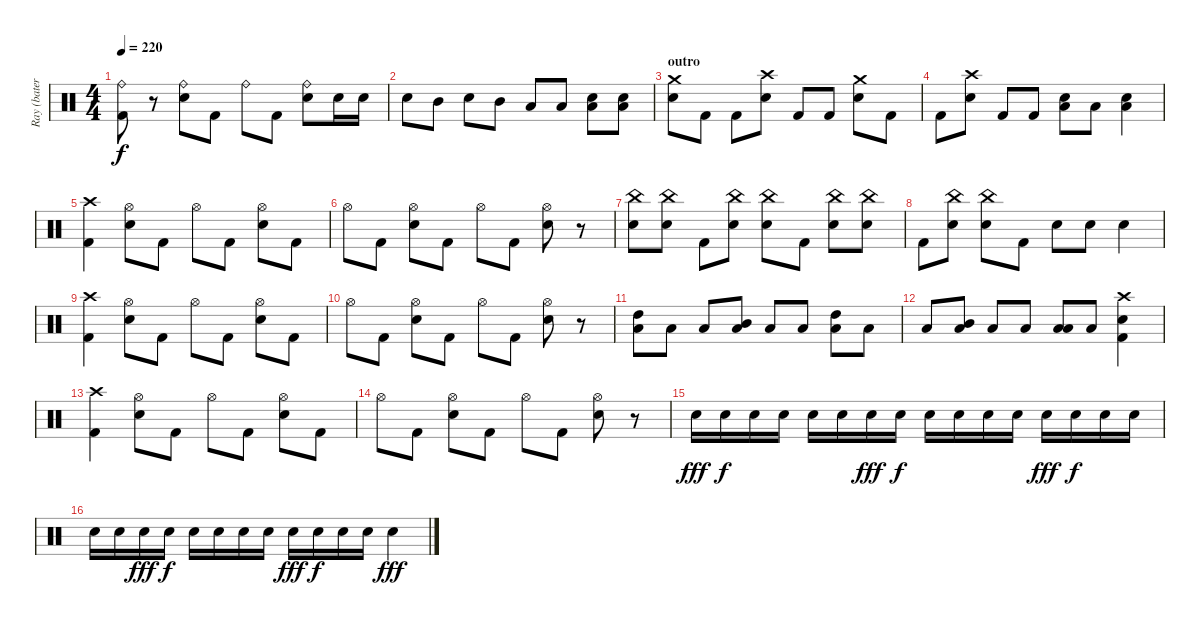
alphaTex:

\track ("Ray (batería)" "Ray (bater") {instrument percussion}
\staff {score}
\articulation defaults
\ts (4 4)
\tempo 220
\clef neutral
\ks c
("Ride (bell)" "Kick (hit) 2").8{dy f} r.8 ("Ride (bell)" "Snare (hit) 2").8 "Kick (hit) 2".8 "Ride (bell)".8 "Kick (hit) 2".8 ("Ride (bell)" "Snare (hit) 2").8 "Snare (hit) 2".16 "Snare (hit) 2".16 |
"Snare (hit) 2".8 "Mid Tom (hit)".8 "Snare (hit) 2".8 "Mid Tom (hit)".8 "Low Tom (hit)".8 "Low Tom (hit)".8 ("Snare (hit) 2" "Low Tom (hit)").8 ("Snare (hit) 2" "Low Tom (hit)").8 |
\section ("" "outro")
("Crash medium (hit)" "Snare (hit) 2").8 "Kick (hit) 2".8 "Kick (hit) 2".8 ("Crash high (hit)" "Snare (hit) 2").8 "Kick (hit) 2".8 "Kick (hit) 2".8 ("Crash medium (hit)" "Snare (hit) 2").8 "Kick (hit) 2".8 |
"Kick (hit) 2".8 ("Crash high (hit)" "Snare (hit) 2").8 "Kick (hit) 2".8 "Kick (hit) 2".8 ("Snare (hit) 2" "Low Tom (hit)").8 "Low Tom (hit)".8 ("Snare (hit) 2" "Low Tom (hit)").4 |
("Crash high (hit)" "Kick (hit) 2").4 ("Hi-Hat (open)" "Snare (hit) 2").8 "Kick (hit) 2".8 "Hi-Hat (open)".8 "Kick (hit) 2".8 ("Hi-Hat (open)" "Snare (hit) 2").8 "Kick (hit) 2".8 |
"Hi-Hat (open)".8 "Kick (hit) 2".8 ("Hi-Hat (open)" "Snare (hit) 2").8 "Kick (hit) 2".8 "Hi-Hat (open)".8 "Kick (hit) 2".8 ("Hi-Hat (open)" "Snare (hit) 2").8 r.8 |
("China (hit)" "Snare (hit) 2").8 ("China (hit)" "Snare (hit) 2").8 "Kick (hit) 2".8 ("China (hit)" "Snare (hit) 2").8 ("China (hit)" "Snare (hit) 2").8 "Kick (hit) 2".8 ("China (hit)" "Snare (hit) 2").8 ("China (hit)" "Snare (hit) 2").8 |
"Kick (hit) 2".8 ("China (hit)" "Snare (hit) 2").8 ("China (hit)" "Snare (hit) 2").8 "Kick (hit) 2".8 "Snare (hit) 2".8 "Snare (hit) 2".8 "Snare (hit) 2".4 |
("Crash high (hit)" "Kick (hit) 2").4 ("Hi-Hat (open)" "Snare (hit) 2").8 "Kick (hit) 2".8 "Hi-Hat (open)".8 "Kick (hit) 2".8 ("Hi-Hat (open)" "Snare (hit) 2").8 "Kick (hit) 2".8 |
"Hi-Hat (open)".8 "Kick (hit) 2".8 ("Hi-Hat (open)" "Snare (hit) 2").8 "Kick (hit) 2".8 "Hi-Hat (open)".8 "Kick (hit) 2".8 ("Hi-Hat (open)" "Snare (hit) 2").8 r.8 |
("High Tom (hit)" "Low Tom (hit)").8 "Low Tom (hit)".8 "Low Tom (hit)".8 ("Mid Tom (hit)" "Low Tom (hit)").8 "Low Tom (hit)".8 "Low Tom (hit)".8 ("High Tom (hit)" "Low Tom (hit)").8 "Low Tom (hit)".8 |
"Low Tom (hit)".8 ("Mid Tom (hit)" "Low Tom (hit)").8 "Low Tom (hit)".8 "Low Tom (hit)".8 ("Low Tom (hit)" "Low Floor Tom (hit)").8 "Low Tom (hit)".8 ("Crash high (hit)" "Snare (hit) 2" "Kick (hit) 2").4 |
("Crash high (hit)" "Kick (hit) 2").4 ("Hi-Hat (open)" "Snare (hit) 2").8 "Kick (hit) 2".8 "Hi-Hat (open)".8 "Kick (hit) 2".8 ("Hi-Hat (open)" "Snare (hit) 2").8 "Kick (hit) 2".8 |
"Hi-Hat (open)".8 "Kick (hit) 2".8 ("Hi-Hat (open)" "Snare (hit) 2").8 "Kick (hit) 2".8 "Hi-Hat (open)".8 "Kick (hit) 2".8 ("Hi-Hat (open)" "Snare (hit) 2").8 r.8 |
"Snare (hit) 2".16{dy fff} "Snare (hit) 2".16{dy f} "Snare (hit) 2".16 "Snare (hit) 2".16 "Snare (hit) 2".16 "Snare (hit) 2".16 "Snare (hit) 2".16{dy fff} "Snare (hit) 2".16{dy f} "Snare (hit) 2".16 "Snare (hit) 2".16 "Snare (hit) 2".16 "Snare (hit) 2".16 "Snare (hit) 2".16{dy fff} "Snare (hit) 2".16{dy f} "Snare (hit) 2".16 "Snare (hit) 2".16 |
"Snare (hit) 2".16 "Snare (hit) 2".16 "Snare (hit) 2".16{dy fff} "Snare (hit) 2".16{dy f} "Snare (hit) 2".16 "Snare (hit) 2".16 "Snare (hit) 2".16 "Snare (hit) 2".16 "Snare (hit) 2".16{dy fff} "Snare (hit) 2".16{dy f} "Snare (hit) 2".16 "Snare (hit) 2".16 "Snare (hit) 2".4{dy fff}
